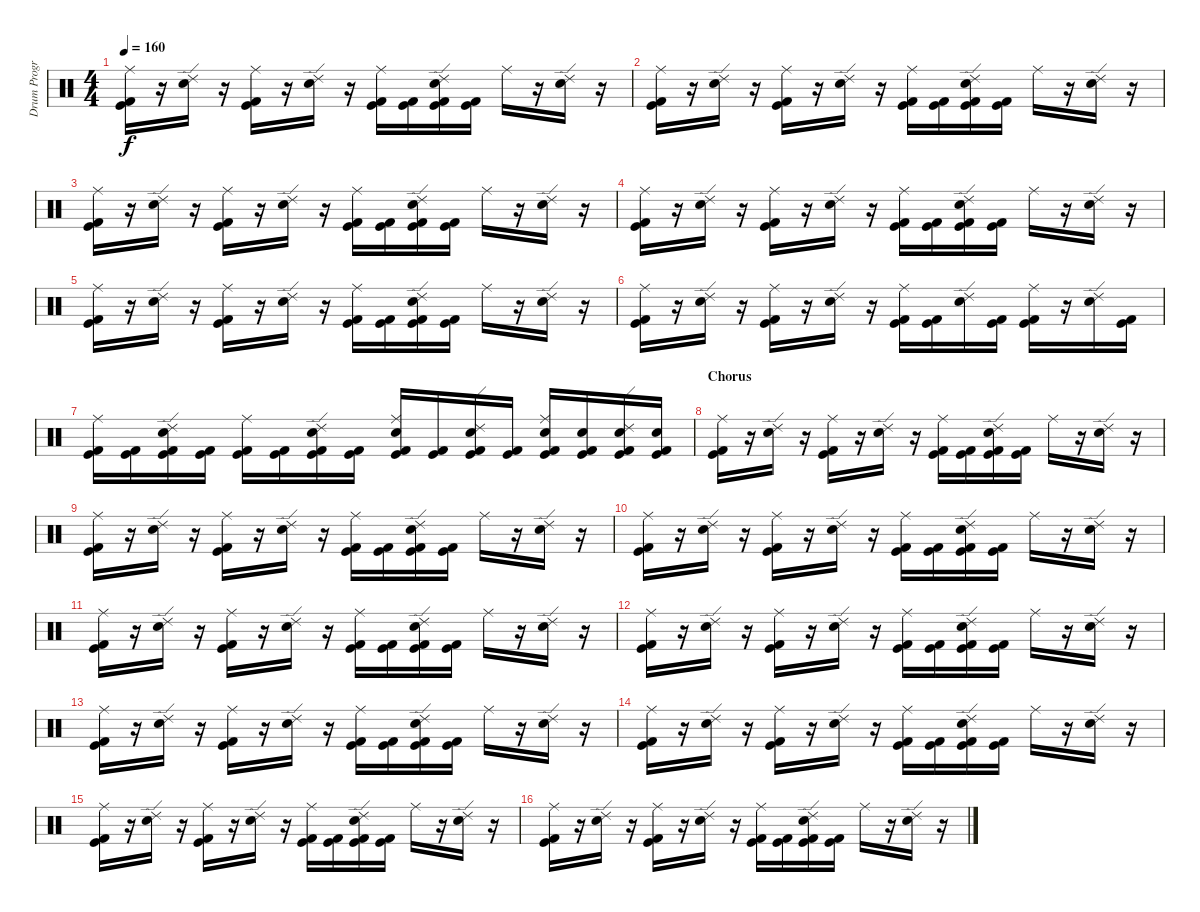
\track ("Drum Program - BG" "Drum Progr") {instrument percussion}
\staff {score}
\articulation defaults
\ts (4 4)
\tempo 160
\clef neutral
\ks c
("Kick (hit) 2" "Kick (hit)" "Ride (middle)").16{dy f} r.16 ("Electric Snare (hit)" "Ride (edge) 2").16 r.16 ("Kick (hit)" "Kick (hit) 2" "Ride (middle)").16 r.16 ("Electric Snare (hit)" "Ride (edge) 2").16 r.16 ("Kick (hit)" "Kick (hit) 2" "Ride (middle)").16 ("Kick (hit)" "Kick (hit) 2").16 ("Kick (hit)" "Kick (hit) 2" "Electric Snare (hit)" "Ride (edge) 2").16 ("Kick (hit)" "Kick (hit) 2").16 "Ride (middle)".16 r.16 ("Electric Snare (hit)" "Ride (edge) 2").16 r.16 |
("Kick (hit) 2" "Kick (hit)" "Ride (middle)").16 r.16 ("Electric Snare (hit)" "Ride (edge) 2").16 r.16 ("Kick (hit)" "Kick (hit) 2" "Ride (middle)").16 r.16 ("Electric Snare (hit)" "Ride (edge) 2").16 r.16 ("Kick (hit)" "Kick (hit) 2" "Ride (middle)").16 ("Kick (hit)" "Kick (hit) 2").16 ("Kick (hit)" "Kick (hit) 2" "Electric Snare (hit)" "Ride (edge) 2").16 ("Kick (hit)" "Kick (hit) 2").16 "Ride (middle)".16 r.16 ("Electric Snare (hit)" "Ride (edge) 2").16 r.16 |
("Kick (hit) 2" "Kick (hit)" "Ride (middle)").16 r.16 ("Electric Snare (hit)" "Ride (edge) 2").16 r.16 ("Kick (hit)" "Kick (hit) 2" "Ride (middle)").16 r.16 ("Electric Snare (hit)" "Ride (edge) 2").16 r.16 ("Kick (hit)" "Kick (hit) 2" "Ride (middle)").16 ("Kick (hit)" "Kick (hit) 2").16 ("Kick (hit)" "Kick (hit) 2" "Electric Snare (hit)" "Ride (edge) 2").16 ("Kick (hit)" "Kick (hit) 2").16 "Ride (middle)".16 r.16 ("Electric Snare (hit)" "Ride (edge) 2").16 r.16 |
("Kick (hit) 2" "Kick (hit)" "Ride (middle)").16 r.16 ("Electric Snare (hit)" "Ride (edge) 2").16 r.16 ("Kick (hit)" "Kick (hit) 2" "Ride (middle)").16 r.16 ("Electric Snare (hit)" "Ride (edge) 2").16 r.16 ("Kick (hit)" "Kick (hit) 2" "Ride (middle)").16 ("Kick (hit)" "Kick (hit) 2").16 ("Kick (hit)" "Kick (hit) 2" "Electric Snare (hit)" "Ride (edge) 2").16 ("Kick (hit)" "Kick (hit) 2").16 "Ride (middle)".16 r.16 ("Electric Snare (hit)" "Ride (edge) 2").16 r.16 |
("Kick (hit) 2" "Kick (hit)" "Ride (middle)").16 r.16 ("Electric Snare (hit)" "Ride (edge) 2").16 r.16 ("Kick (hit)" "Kick (hit) 2" "Ride (middle)").16 r.16 ("Electric Snare (hit)" "Ride (edge) 2").16 r.16 ("Kick (hit)" "Kick (hit) 2" "Ride (middle)").16 ("Kick (hit)" "Kick (hit) 2").16 ("Kick (hit)" "Kick (hit) 2" "Electric Snare (hit)" "Ride (edge) 2").16 ("Kick (hit)" "Kick (hit) 2").16 "Ride (middle)".16 r.16 ("Electric Snare (hit)" "Ride (edge) 2").16 r.16 |
("Kick (hit) 2" "Kick (hit)" "Ride (middle)").16 r.16 ("Electric Snare (hit)" "Ride (edge) 2").16 r.16 ("Kick (hit)" "Kick (hit) 2" "Ride (middle)").16 r.16 ("Electric Snare (hit)" "Ride (edge) 2").16 r.16 ("Kick (hit)" "Kick (hit) 2" "Ride (middle)").16 ("Kick (hit)" "Kick (hit) 2").16 ("Electric Snare (hit)" "Ride (edge) 2").16 ("Kick (hit)" "Kick (hit) 2").16 ("Kick (hit)" "Kick (hit) 2" "Ride (middle)").16 r.16 ("Electric Snare (hit)" "Ride (edge) 2").16 ("Kick (hit)" "Kick (hit) 2").16 |
("Kick (hit)" "Kick (hit) 2" "Ride (middle)").16 ("Kick (hit)" "Kick (hit) 2").16 ("Kick (hit)" "Kick (hit) 2" "Electric Snare (hit)" "Ride (edge) 2").16 ("Kick (hit)" "Kick (hit) 2").16 ("Kick (hit)" "Kick (hit) 2" "Ride (middle)").16 ("Kick (hit)" "Kick (hit) 2").16 ("Kick (hit)" "Kick (hit) 2" "Electric Snare (hit)" "Ride (edge) 2").16 ("Kick (hit)" "Kick (hit) 2").16 ("Kick (hit)" "Kick (hit) 2" "Electric Snare (hit)" "Ride (middle)").16 ("Kick (hit)" "Kick (hit) 2").16 ("Kick (hit)" "Kick (hit) 2" "Electric Snare (hit)" "Ride (edge) 2").16 ("Kick (hit)" "Kick (hit) 2").16 ("Kick (hit)" "Kick (hit) 2" "Electric Snare (hit)" "Ride (middle)").16 ("Kick (hit)" "Kick (hit) 2" "Electric Snare (hit)").16 ("Kick (hit)" "Kick (hit) 2" "Electric Snare (hit)" "Ride (edge) 2").16 ("Kick (hit)" "Kick (hit) 2" "Electric Snare (hit)").16 |
\section ("" "Chorus")
("Kick (hit) 2" "Kick (hit)" "Ride (middle)").16 r.16 ("Electric Snare (hit)" "Ride (edge) 2").16 r.16 ("Kick (hit)" "Kick (hit) 2" "Ride (middle)").16 r.16 ("Electric Snare (hit)" "Ride (edge) 2").16 r.16 ("Kick (hit)" "Kick (hit) 2" "Ride (middle)").16 ("Kick (hit)" "Kick (hit) 2").16 ("Kick (hit)" "Kick (hit) 2" "Electric Snare (hit)" "Ride (edge) 2").16 ("Kick (hit)" "Kick (hit) 2").16 "Ride (middle)".16 r.16 ("Electric Snare (hit)" "Ride (edge) 2").16 r.16 |
("Kick (hit) 2" "Kick (hit)" "Ride (middle)").16 r.16 ("Electric Snare (hit)" "Ride (edge) 2").16 r.16 ("Kick (hit)" "Kick (hit) 2" "Ride (middle)").16 r.16 ("Electric Snare (hit)" "Ride (edge) 2").16 r.16 ("Kick (hit)" "Kick (hit) 2" "Ride (middle)").16 ("Kick (hit)" "Kick (hit) 2").16 ("Kick (hit)" "Kick (hit) 2" "Electric Snare (hit)" "Ride (edge) 2").16 ("Kick (hit)" "Kick (hit) 2").16 "Ride (middle)".16 r.16 ("Electric Snare (hit)" "Ride (edge) 2").16 r.16 |
("Kick (hit) 2" "Kick (hit)" "Ride (middle)").16 r.16 ("Electric Snare (hit)" "Ride (edge) 2").16 r.16 ("Kick (hit)" "Kick (hit) 2" "Ride (middle)").16 r.16 ("Electric Snare (hit)" "Ride (edge) 2").16 r.16 ("Kick (hit)" "Kick (hit) 2" "Ride (middle)").16 ("Kick (hit)" "Kick (hit) 2").16 ("Kick (hit)" "Kick (hit) 2" "Electric Snare (hit)" "Ride (edge) 2").16 ("Kick (hit)" "Kick (hit) 2").16 "Ride (middle)".16 r.16 ("Electric Snare (hit)" "Ride (edge) 2").16 r.16 |
("Kick (hit) 2" "Kick (hit)" "Ride (middle)").16 r.16 ("Electric Snare (hit)" "Ride (edge) 2").16 r.16 ("Kick (hit)" "Kick (hit) 2" "Ride (middle)").16 r.16 ("Electric Snare (hit)" "Ride (edge) 2").16 r.16 ("Kick (hit)" "Kick (hit) 2" "Ride (middle)").16 ("Kick (hit)" "Kick (hit) 2").16 ("Kick (hit)" "Kick (hit) 2" "Electric Snare (hit)" "Ride (edge) 2").16 ("Kick (hit)" "Kick (hit) 2").16 "Ride (middle)".16 r.16 ("Electric Snare (hit)" "Ride (edge) 2").16 r.16 |
("Kick (hit) 2" "Kick (hit)" "Ride (middle)").16 r.16 ("Electric Snare (hit)" "Ride (edge) 2").16 r.16 ("Kick (hit)" "Kick (hit) 2" "Ride (middle)").16 r.16 ("Electric Snare (hit)" "Ride (edge) 2").16 r.16 ("Kick (hit)" "Kick (hit) 2" "Ride (middle)").16 ("Kick (hit)" "Kick (hit) 2").16 ("Kick (hit)" "Kick (hit) 2" "Electric Snare (hit)" "Ride (edge) 2").16 ("Kick (hit)" "Kick (hit) 2").16 "Ride (middle)".16 r.16 ("Electric Snare (hit)" "Ride (edge) 2").16 r.16 |
("Kick (hit) 2" "Kick (hit)" "Ride (middle)").16 r.16 ("Electric Snare (hit)" "Ride (edge) 2").16 r.16 ("Kick (hit)" "Kick (hit) 2" "Ride (middle)").16 r.16 ("Electric Snare (hit)" "Ride (edge) 2").16 r.16 ("Kick (hit)" "Kick (hit) 2" "Ride (middle)").16 ("Kick (hit)" "Kick (hit) 2").16 ("Kick (hit)" "Kick (hit) 2" "Electric Snare (hit)" "Ride (edge) 2").16 ("Kick (hit)" "Kick (hit) 2").16 "Ride (middle)".16 r.16 ("Electric Snare (hit)" "Ride (edge) 2").16 r.16 |
("Kick (hit) 2" "Kick (hit)" "Ride (middle)").16 r.16 ("Electric Snare (hit)" "Ride (edge) 2").16 r.16 ("Kick (hit)" "Kick (hit) 2" "Ride (middle)").16 r.16 ("Electric Snare (hit)" "Ride (edge) 2").16 r.16 ("Kick (hit)" "Kick (hit) 2" "Ride (middle)").16 ("Kick (hit)" "Kick (hit) 2").16 ("Kick (hit)" "Kick (hit) 2" "Electric Snare (hit)" "Ride (edge) 2").16 ("Kick (hit)" "Kick (hit) 2").16 "Ride (middle)".16 r.16 ("Electric Snare (hit)" "Ride (edge) 2").16 r.16 |
("Kick (hit) 2" "Kick (hit)" "Ride (middle)").16 r.16 ("Electric Snare (hit)" "Ride (edge) 2").16 r.16 ("Kick (hit)" "Kick (hit) 2" "Ride (middle)").16 r.16 ("Electric Snare (hit)" "Ride (edge) 2").16 r.16 ("Kick (hit)" "Kick (hit) 2" "Ride (middle)").16 ("Kick (hit)" "Kick (hit) 2").16 ("Kick (hit)" "Kick (hit) 2" "Electric Snare (hit)" "Ride (edge) 2").16 ("Kick (hit)" "Kick (hit) 2").16 "Ride (middle)".16 r.16 ("Electric Snare (hit)" "Ride (edge) 2").16 r.16 |
("Kick (hit) 2" "Kick (hit)" "Ride (middle)").16 r.16 ("Electric Snare (hit)" "Ride (edge) 2").16 r.16 ("Kick (hit)" "Kick (hit) 2" "Ride (middle)").16 r.16 ("Electric Snare (hit)" "Ride (edge) 2").16 r.16 ("Kick (hit)" "Kick (hit) 2" "Ride (middle)").16 ("Kick (hit)" "Kick (hit) 2").16 ("Kick (hit)" "Kick (hit) 2" "Electric Snare (hit)" "Ride (edge) 2").16 ("Kick (hit)" "Kick (hit) 2").16 "Ride (middle)".16 r.16 ("Electric Snare (hit)" "Ride (edge) 2").16 r.16
